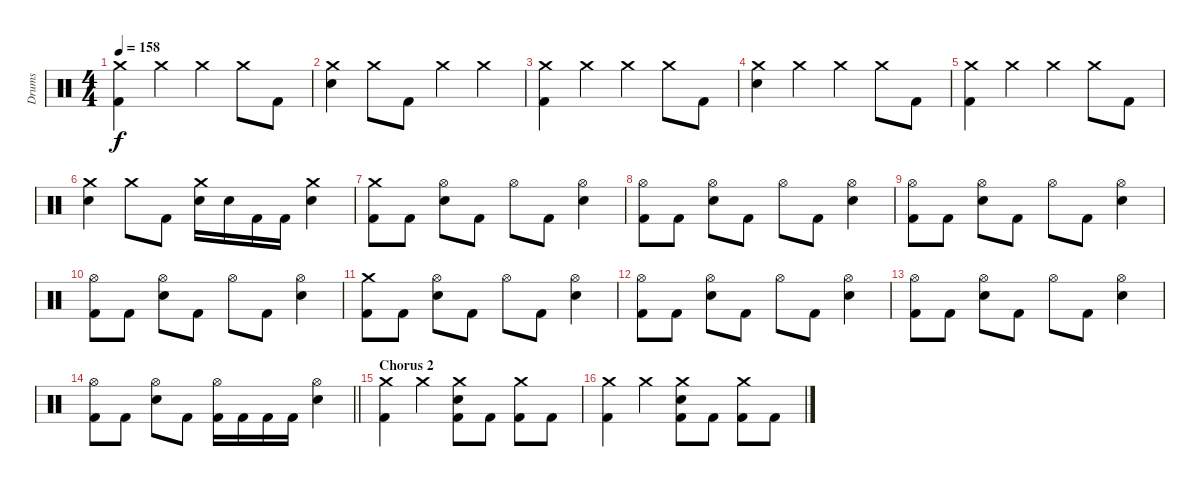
\track ("Drums" "Drums") {instrument percussion}
\staff {score}
\articulation defaults
\ts (4 4)
\tempo 158
\clef neutral
\ks c
("Crash medium (hit)" "Kick (hit) 2").4{dy f} "Crash medium (hit)".4 "Crash medium (hit)".4 "Crash medium (hit)".8 "Kick (hit) 2".8 |
("Crash medium (hit)" "Electric Snare (hit)").4 "Crash medium (hit)".8 "Kick (hit) 2".8 "Crash medium (hit)".4 "Crash medium (hit)".4 |
("Crash medium (hit)" "Kick (hit) 2").4 "Crash medium (hit)".4 "Crash medium (hit)".4 "Crash medium (hit)".8 "Kick (hit) 2".8 |
("Crash medium (hit)" "Electric Snare (hit)").4 "Crash medium (hit)".4 "Crash medium (hit)".4 "Crash medium (hit)".8 "Kick (hit) 2".8 |
("Crash medium (hit)" "Kick (hit) 2").4 "Crash medium (hit)".4 "Crash medium (hit)".4 "Crash medium (hit)".8 "Kick (hit) 2".8 |
("Crash medium (hit)" "Electric Snare (hit)").4 "Crash medium (hit)".8 "Kick (hit) 2".8 ("Crash medium (hit)" "Electric Snare (hit)").16 "Electric Snare (hit)".16 "Kick (hit) 2".16 "Kick (hit) 2".16 ("Crash medium (hit)" "Electric Snare (hit)").4 |
("Crash medium (hit)" "Kick (hit) 2").8 "Kick (hit) 2".8 ("Hi-Hat (open)" "Electric Snare (hit)").8 "Kick (hit) 2".8 "Hi-Hat (open)".8 "Kick (hit) 2".8 ("Hi-Hat (open)" "Electric Snare (hit)").4 |
("Hi-Hat (open)" "Kick (hit) 2").8 "Kick (hit) 2".8 ("Hi-Hat (open)" "Electric Snare (hit)").8 "Kick (hit) 2".8 "Hi-Hat (open)".8 "Kick (hit) 2".8 ("Hi-Hat (open)" "Electric Snare (hit)").4 |
("Hi-Hat (open)" "Kick (hit) 2").8 "Kick (hit) 2".8 ("Hi-Hat (open)" "Electric Snare (hit)").8 "Kick (hit) 2".8 "Hi-Hat (open)".8 "Kick (hit) 2".8 ("Hi-Hat (open)" "Electric Snare (hit)").4 |
("Hi-Hat (open)" "Kick (hit) 2").8 "Kick (hit) 2".8 ("Hi-Hat (open)" "Electric Snare (hit)").8 "Kick (hit) 2".8 "Hi-Hat (open)".8 "Kick (hit) 2".8 ("Hi-Hat (open)" "Electric Snare (hit)").4 |
("Crash medium (hit)" "Kick (hit) 2").8 "Kick (hit) 2".8 ("Hi-Hat (open)" "Electric Snare (hit)").8 "Kick (hit) 2".8 "Hi-Hat (open)".8 "Kick (hit) 2".8 ("Hi-Hat (open)" "Electric Snare (hit)").4 |
("Hi-Hat (open)" "Kick (hit) 2").8 "Kick (hit) 2".8 ("Hi-Hat (open)" "Electric Snare (hit)").8 "Kick (hit) 2".8 "Hi-Hat (open)".8 "Kick (hit) 2".8 ("Hi-Hat (open)" "Electric Snare (hit)").4 |
("Hi-Hat (open)" "Kick (hit) 2").8 "Kick (hit) 2".8 ("Hi-Hat (open)" "Electric Snare (hit)").8 "Kick (hit) 2".8 "Hi-Hat (open)".8 "Kick (hit) 2".8 ("Hi-Hat (open)" "Electric Snare (hit)").4 |
\barLineRight lightlight
("Hi-Hat (open)" "Kick (hit) 2").8 "Kick (hit) 2".8 ("Hi-Hat (open)" "Electric Snare (hit)").8 "Kick (hit) 2".8 ("Hi-Hat (open)" "Kick (hit) 2").16 "Kick (hit) 2".16 "Kick (hit) 2".16 "Kick (hit) 2".16 ("Hi-Hat (open)" "Electric Snare (hit)").4 |
\section ("" "Chorus 2")
("Crash medium (hit)" "Kick (hit) 2").4 "Crash medium (hit)".4 ("Crash medium (hit)" "Electric Snare (hit)" "Kick (hit) 2").8 "Kick (hit) 2".8 ("Crash medium (hit)" "Kick (hit) 2").8 "Kick (hit) 2".8 |
("Crash medium (hit)" "Kick (hit) 2").4 "Crash medium (hit)".4 ("Crash medium (hit)" "Electric Snare (hit)" "Kick (hit) 2").8 "Kick (hit) 2".8 ("Crash medium (hit)" "Kick (hit) 2").8 "Kick (hit) 2".8
